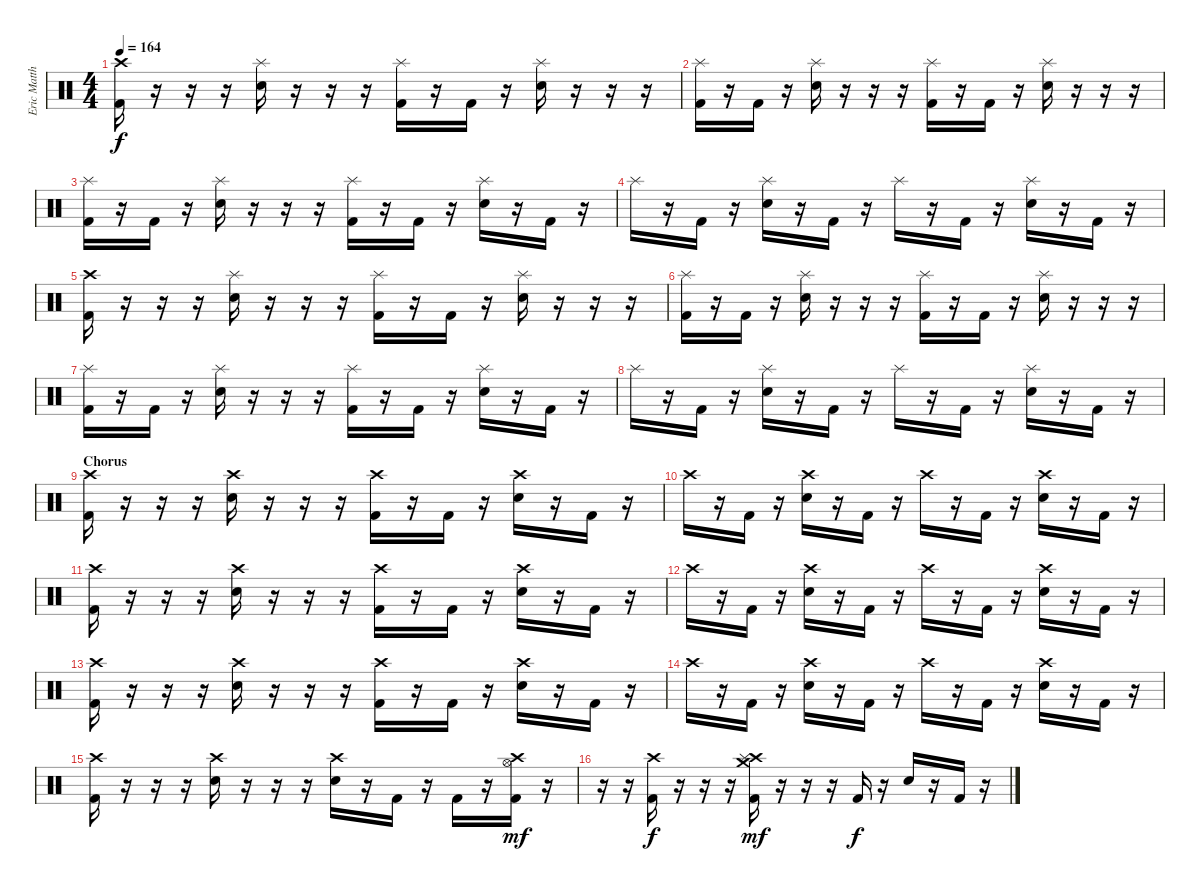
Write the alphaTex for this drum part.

\track ("Eric Matthews (drums)" "Eric Matth") {instrument percussion}
\staff {score}
\articulation defaults
\ts (4 4)
\tempo 164
\clef neutral
\ks c
("Crash high (hit)" "Kick (hit) 2").16{dy f} r.16 r.16 r.16 ("Splash (hit)" "Snare (hit) 2").16 r.16 r.16 r.16 ("Splash (hit)" "Kick (hit) 2").16 r.16 "Kick (hit) 2".16 r.16 ("Splash (hit)" "Snare (hit) 2").16 r.16 r.16 r.16 |
("Splash (hit)" "Kick (hit) 2").16 r.16 "Kick (hit) 2".16 r.16 ("Splash (hit)" "Snare (hit) 2").16 r.16 r.16 r.16 ("Splash (hit)" "Kick (hit) 2").16 r.16 "Kick (hit) 2".16 r.16 ("Splash (hit)" "Snare (hit) 2").16 r.16 r.16 r.16 |
("Splash (hit)" "Kick (hit) 2").16 r.16 "Kick (hit) 2".16 r.16 ("Splash (hit)" "Snare (hit) 2").16 r.16 r.16 r.16 ("Splash (hit)" "Kick (hit) 2").16 r.16 "Kick (hit) 2".16 r.16 ("Splash (hit)" "Snare (hit) 2").16 r.16 "Kick (hit) 2".16 r.16 |
"Splash (hit)".16 r.16 "Kick (hit) 2".16 r.16 ("Splash (hit)" "Snare (hit) 2").16 r.16 "Kick (hit) 2".16 r.16 "Splash (hit)".16 r.16 "Kick (hit) 2".16 r.16 ("Splash (hit)" "Snare (hit) 2").16 r.16 "Kick (hit) 2".16 r.16 |
("Crash high (hit)" "Kick (hit) 2").16 r.16 r.16 r.16 ("Splash (hit)" "Snare (hit) 2").16 r.16 r.16 r.16 ("Splash (hit)" "Kick (hit) 2").16 r.16 "Kick (hit) 2".16 r.16 ("Splash (hit)" "Snare (hit) 2").16 r.16 r.16 r.16 |
("Splash (hit)" "Kick (hit) 2").16 r.16 "Kick (hit) 2".16 r.16 ("Splash (hit)" "Snare (hit) 2").16 r.16 r.16 r.16 ("Splash (hit)" "Kick (hit) 2").16 r.16 "Kick (hit) 2".16 r.16 ("Splash (hit)" "Snare (hit) 2").16 r.16 r.16 r.16 |
("Splash (hit)" "Kick (hit) 2").16 r.16 "Kick (hit) 2".16 r.16 ("Splash (hit)" "Snare (hit) 2").16 r.16 r.16 r.16 ("Splash (hit)" "Kick (hit) 2").16 r.16 "Kick (hit) 2".16 r.16 ("Splash (hit)" "Snare (hit) 2").16 r.16 "Kick (hit) 2".16 r.16 |
"Splash (hit)".16 r.16 "Kick (hit) 2".16 r.16 ("Splash (hit)" "Snare (hit) 2").16 r.16 "Kick (hit) 2".16 r.16 "Splash (hit)".16 r.16 "Kick (hit) 2".16 r.16 ("Splash (hit)" "Snare (hit) 2").16 r.16 "Kick (hit) 2".16 r.16 |
\section ("" "Chorus")
("Crash high (hit)" "Kick (hit) 2").16 r.16 r.16 r.16 ("Crash high (hit)" "Snare (hit) 2").16 r.16 r.16 r.16 ("Crash high (hit)" "Kick (hit) 2").16 r.16 "Kick (hit) 2".16 r.16 ("Crash high (hit)" "Snare (hit) 2").16 r.16 "Kick (hit) 2".16 r.16 |
"Crash high (hit)".16 r.16 "Kick (hit) 2".16 r.16 ("Crash high (hit)" "Snare (hit) 2").16 r.16 "Kick (hit) 2".16 r.16 "Crash high (hit)".16 r.16 "Kick (hit) 2".16 r.16 ("Crash high (hit)" "Snare (hit) 2").16 r.16 "Kick (hit) 2".16 r.16 |
("Crash high (hit)" "Kick (hit) 2").16 r.16 r.16 r.16 ("Crash high (hit)" "Snare (hit) 2").16 r.16 r.16 r.16 ("Crash high (hit)" "Kick (hit) 2").16 r.16 "Kick (hit) 2".16 r.16 ("Crash high (hit)" "Snare (hit) 2").16 r.16 "Kick (hit) 2".16 r.16 |
"Crash high (hit)".16 r.16 "Kick (hit) 2".16 r.16 ("Crash high (hit)" "Snare (hit) 2").16 r.16 "Kick (hit) 2".16 r.16 "Crash high (hit)".16 r.16 "Kick (hit) 2".16 r.16 ("Crash high (hit)" "Snare (hit) 2").16 r.16 "Kick (hit) 2".16 r.16 |
("Crash high (hit)" "Kick (hit) 2").16 r.16 r.16 r.16 ("Crash high (hit)" "Snare (hit) 2").16 r.16 r.16 r.16 ("Crash high (hit)" "Kick (hit) 2").16 r.16 "Kick (hit) 2".16 r.16 ("Crash high (hit)" "Snare (hit) 2").16 r.16 "Kick (hit) 2".16 r.16 |
"Crash high (hit)".16 r.16 "Kick (hit) 2".16 r.16 ("Crash high (hit)" "Snare (hit) 2").16 r.16 "Kick (hit) 2".16 r.16 "Crash high (hit)".16 r.16 "Kick (hit) 2".16 r.16 ("Crash high (hit)" "Snare (hit) 2").16 r.16 "Kick (hit) 2".16 r.16 |
("Crash high (hit)" "Kick (hit) 2").16 r.16 r.16 r.16 ("Crash high (hit)" "Snare (hit) 2").16 r.16 r.16 r.16 ("Crash high (hit)" "Snare (hit) 2").16 r.16 "Kick (hit) 2".16 r.16 "Kick (hit) 2".16 r.16 ("Crash high (hit)"{pm} "Hi-Hat (open)"{pm} "Kick (hit) 2").16{dy mf} r.16 |
r.16 r.16 ("Crash high (hit)"{pm} "Kick (hit) 2").16{dy f} r.16 r.16 r.16 ("Crash medium (hit)" "Crash high (hit)" "Splash (hit)" "Kick (hit) 2").16{dy mf} r.16 r.16 r.16 "Kick (hit) 2".16{dy f} r.16 "Snare (hit) 2".16 r.16 "Kick (hit) 2".16 r.16
